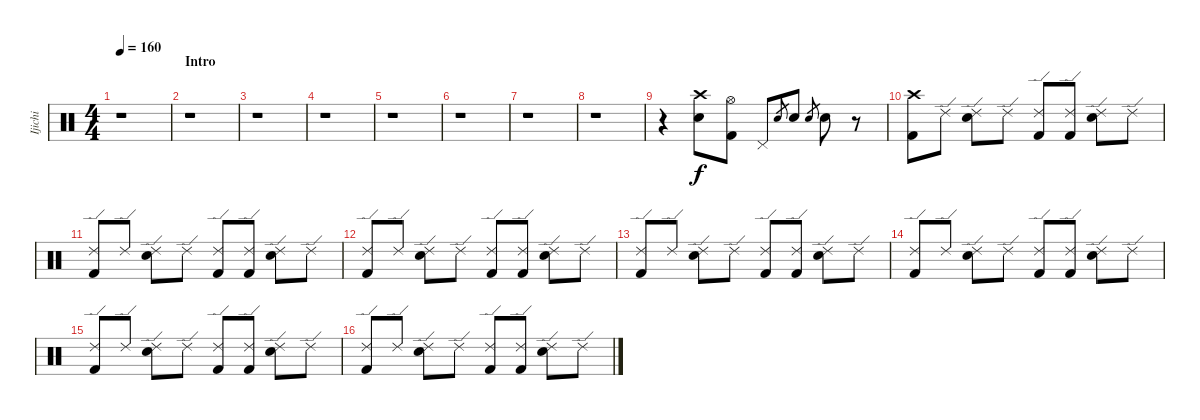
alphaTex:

\track ("Ijichi" "Ijichi") {instrument percussion}
\staff {score}
\articulation defaults
\ts (4 4)
\tempo 160
\clef neutral
\ks c
r.1{dy f} |
\section ("" "Intro")
r.1 |
r.1 |
r.1 |
r.1 |
r.1 |
r.1 |
r.1 |
r.4 ("Electric Snare (hit)" "Crash high (hit)").8 ("Kick (hit) 2" "Hi-Hat (open)").8 "Pedal Hi-Hat (hit)".8 "Electric Snare (hit)".8{gr} "Electric Snare (hit)".8 "Electric Snare (hit)".8{gr} "Electric Snare (hit)".8 r.8 |
("Kick (hit) 2" "Crash high (hit)").8 "Ride (edge) 2".8 ("Electric Snare (hit)" "Ride (edge) 2").8 "Ride (edge) 2".8 ("Kick (hit) 2" "Ride (edge) 2").8 ("Kick (hit) 2" "Ride (edge) 2").8 ("Electric Snare (hit)" "Ride (edge) 2").8 "Ride (edge) 2".8 |
("Kick (hit) 2" "Ride (edge) 2").8 "Ride (edge) 2".8 ("Electric Snare (hit)" "Ride (edge) 2").8 "Ride (edge) 2".8 ("Kick (hit) 2" "Ride (edge) 2").8 ("Kick (hit) 2" "Ride (edge) 2").8 ("Electric Snare (hit)" "Ride (edge) 2").8 "Ride (edge) 2".8 |
("Kick (hit) 2" "Ride (edge) 2").8 "Ride (edge) 2".8 ("Electric Snare (hit)" "Ride (edge) 2").8 "Ride (edge) 2".8 ("Kick (hit) 2" "Ride (edge) 2").8 ("Kick (hit) 2" "Ride (edge) 2").8 ("Electric Snare (hit)" "Ride (edge) 2").8 "Ride (edge) 2".8 |
("Kick (hit) 2" "Ride (edge) 2").8 "Ride (edge) 2".8 ("Electric Snare (hit)" "Ride (edge) 2").8 "Ride (edge) 2".8 ("Kick (hit) 2" "Ride (edge) 2").8 ("Kick (hit) 2" "Ride (edge) 2").8 ("Electric Snare (hit)" "Ride (edge) 2").8 "Ride (edge) 2".8 |
("Kick (hit) 2" "Ride (edge) 2").8 "Ride (edge) 2".8 ("Electric Snare (hit)" "Ride (edge) 2").8 "Ride (edge) 2".8 ("Kick (hit) 2" "Ride (edge) 2").8 ("Kick (hit) 2" "Ride (edge) 2").8 ("Electric Snare (hit)" "Ride (edge) 2").8 "Ride (edge) 2".8 |
("Kick (hit) 2" "Ride (edge) 2").8 "Ride (edge) 2".8 ("Electric Snare (hit)" "Ride (edge) 2").8 "Ride (edge) 2".8 ("Kick (hit) 2" "Ride (edge) 2").8 ("Kick (hit) 2" "Ride (edge) 2").8 ("Electric Snare (hit)" "Ride (edge) 2").8 "Ride (edge) 2".8 |
("Kick (hit) 2" "Ride (edge) 2").8 "Ride (edge) 2".8 ("Electric Snare (hit)" "Ride (edge) 2").8 "Ride (edge) 2".8 ("Kick (hit) 2" "Ride (edge) 2").8 ("Kick (hit) 2" "Ride (edge) 2").8 ("Electric Snare (hit)" "Ride (edge) 2").8 "Ride (edge) 2".8
